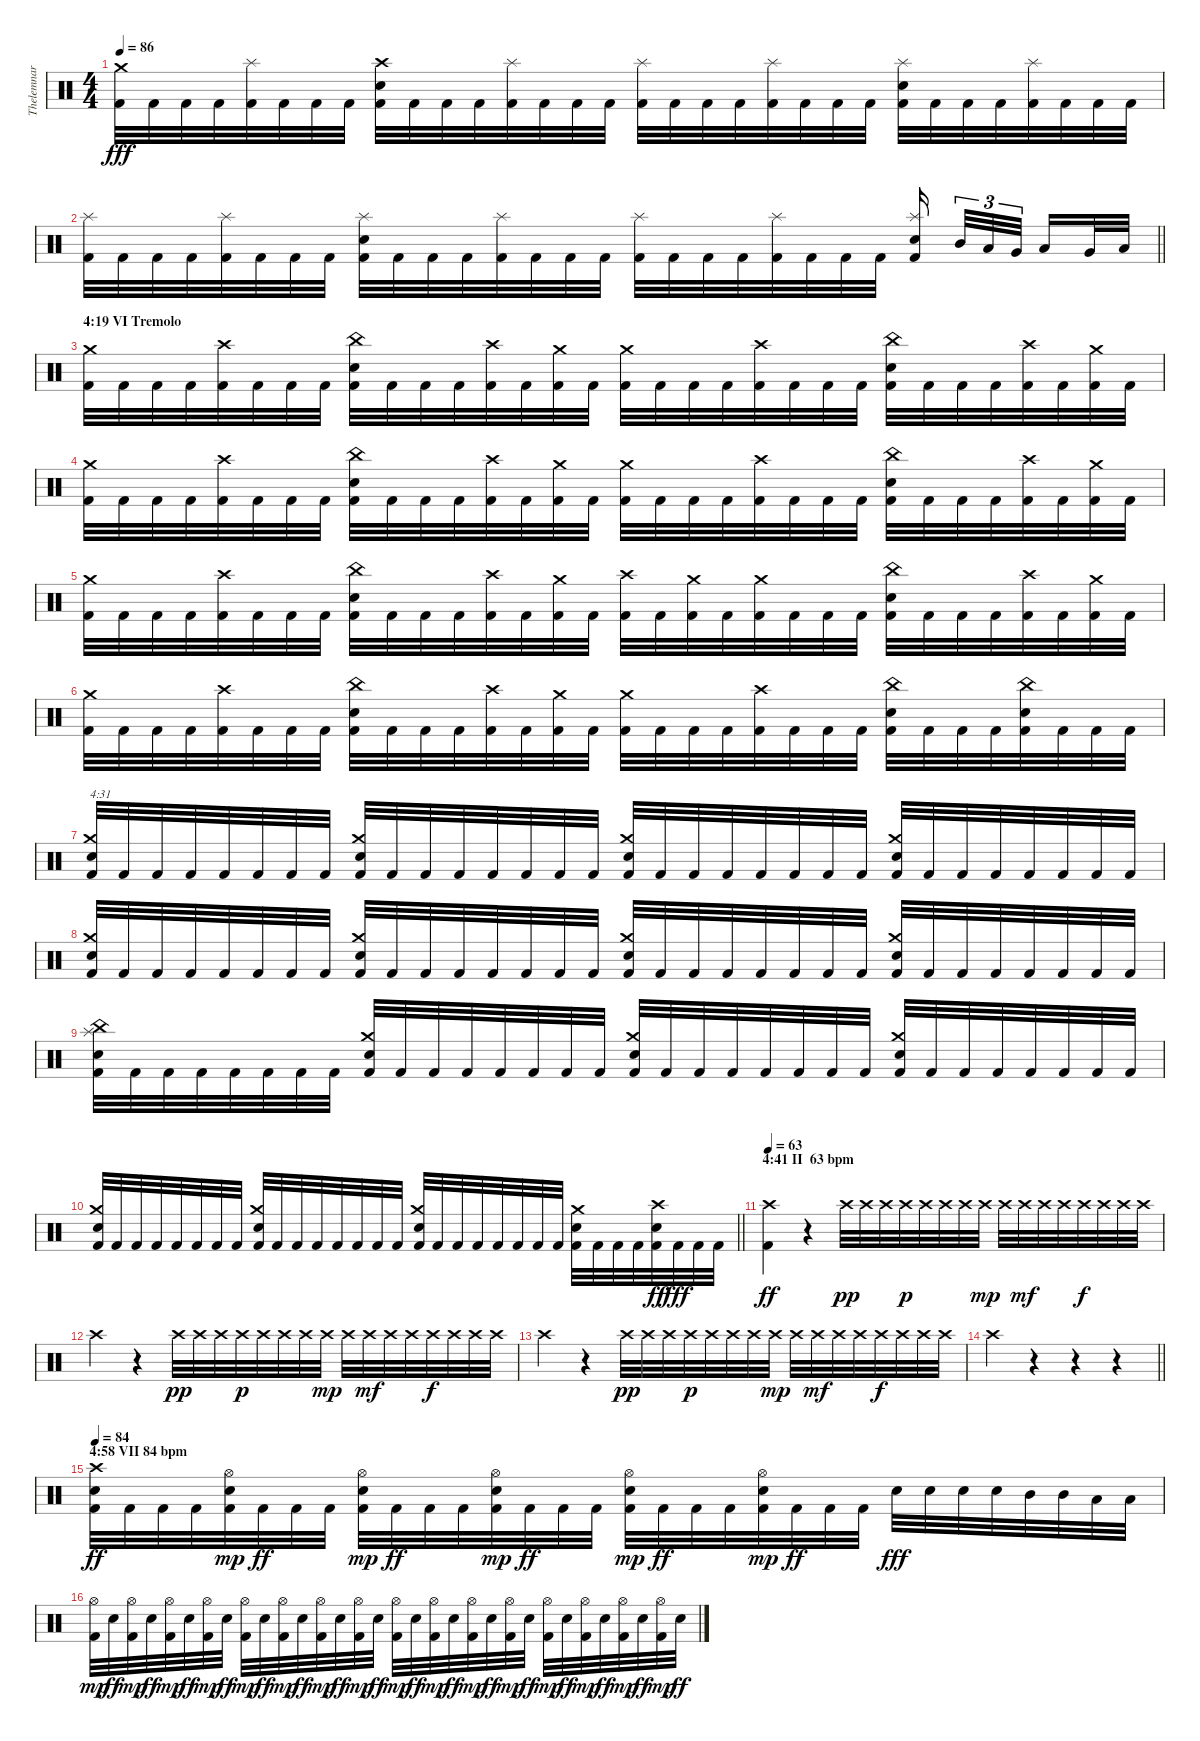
\track ("Thelemnar (Drums)" "Thelemnar ") {instrument percussion}
\staff {score}
\articulation defaults
\ts (4 4)
\tempo 86
\clef neutral
\ks c
("Kick (hit) 2" "Crash medium (hit)").32{dy fff} "Kick (hit) 2".32 "Kick (hit) 2".32 "Kick (hit) 2".32 ("Kick (hit) 2" "Splash (hit)").32 "Kick (hit) 2".32 "Kick (hit) 2".32 "Kick (hit) 2".32 ("Kick (hit) 2" "Electric Snare (hit)" "Crash high (hit)").32 "Kick (hit) 2".32 "Kick (hit) 2".32 "Kick (hit) 2".32 ("Kick (hit) 2" "Splash (hit)").32 "Kick (hit) 2".32 "Kick (hit) 2".32 "Kick (hit) 2".32 ("Kick (hit) 2" "Splash (hit)").32 "Kick (hit) 2".32 "Kick (hit) 2".32 "Kick (hit) 2".32 ("Kick (hit) 2" "Splash (hit)").32 "Kick (hit) 2".32 "Kick (hit) 2".32 "Kick (hit) 2".32 ("Kick (hit) 2" "Electric Snare (hit)" "Splash (hit)").32 "Kick (hit) 2".32 "Kick (hit) 2".32 "Kick (hit) 2".32 ("Kick (hit) 2" "Splash (hit)").32 "Kick (hit) 2".32 "Kick (hit) 2".32 "Kick (hit) 2".32 |
\barLineRight lightlight
("Kick (hit) 2" "Splash (hit)").32 "Kick (hit) 2".32 "Kick (hit) 2".32 "Kick (hit) 2".32 ("Kick (hit) 2" "Splash (hit)").32 "Kick (hit) 2".32 "Kick (hit) 2".32 "Kick (hit) 2".32 ("Kick (hit) 2" "Electric Snare (hit)" "Splash (hit)").32 "Kick (hit) 2".32 "Kick (hit) 2".32 "Kick (hit) 2".32 ("Kick (hit) 2" "Splash (hit)").32 "Kick (hit) 2".32 "Kick (hit) 2".32 "Kick (hit) 2".32 ("Kick (hit) 2" "Splash (hit)").32 "Kick (hit) 2".32 "Kick (hit) 2".32 "Kick (hit) 2".32 ("Kick (hit) 2" "Splash (hit)").32 "Kick (hit) 2".32 "Kick (hit) 2".32 "Kick (hit) 2".32 ("Kick (hit) 2" "Electric Snare (hit)" "Splash (hit)").16{beam splitsecondary} "Mid Tom (hit)".32{tu (3 2)} "Low Tom (hit)".32{tu (3 2)} "Very Low Tom (hit)".32{tu (3 2) beam splitsecondary} "Low Tom (hit)".16 "Very Low Tom (hit)".32 "Low Floor Tom (hit)".32 |
\section ("" "4:19 VI Tremolo")
("Kick (hit) 2" "Crash medium (hit)").32 "Kick (hit) 2".32 "Kick (hit) 2".32 "Kick (hit) 2".32 ("Kick (hit) 2" "Crash high (hit)").32 "Kick (hit) 2".32 "Kick (hit) 2".32 "Kick (hit) 2".32 ("Kick (hit) 2" "Electric Snare (hit)" "China (hit)").32 "Kick (hit) 2".32 "Kick (hit) 2".32 "Kick (hit) 2".32 ("Kick (hit) 2" "Crash high (hit)").32 "Kick (hit) 2".32 ("Kick (hit) 2" "Crash medium (hit)").32 "Kick (hit) 2".32 ("Kick (hit) 2" "Crash medium (hit)").32 "Kick (hit) 2".32 "Kick (hit) 2".32 "Kick (hit) 2".32 ("Kick (hit) 2" "Crash high (hit)").32 "Kick (hit) 2".32 "Kick (hit) 2".32 "Kick (hit) 2".32 ("Kick (hit) 2" "Electric Snare (hit)" "China (hit)").32 "Kick (hit) 2".32 "Kick (hit) 2".32 "Kick (hit) 2".32 ("Kick (hit) 2" "Crash high (hit)").32 "Kick (hit) 2".32 ("Kick (hit) 2" "Crash medium (hit)").32 "Kick (hit) 2".32 |
("Kick (hit) 2" "Crash medium (hit)").32 "Kick (hit) 2".32 "Kick (hit) 2".32 "Kick (hit) 2".32 ("Kick (hit) 2" "Crash high (hit)").32 "Kick (hit) 2".32 "Kick (hit) 2".32 "Kick (hit) 2".32 ("Kick (hit) 2" "Electric Snare (hit)" "China (hit)").32 "Kick (hit) 2".32 "Kick (hit) 2".32 "Kick (hit) 2".32 ("Kick (hit) 2" "Crash high (hit)").32 "Kick (hit) 2".32 ("Kick (hit) 2" "Crash medium (hit)").32 "Kick (hit) 2".32 ("Kick (hit) 2" "Crash medium (hit)").32 "Kick (hit) 2".32 "Kick (hit) 2".32 "Kick (hit) 2".32 ("Kick (hit) 2" "Crash high (hit)").32 "Kick (hit) 2".32 "Kick (hit) 2".32 "Kick (hit) 2".32 ("Kick (hit) 2" "Electric Snare (hit)" "China (hit)").32 "Kick (hit) 2".32 "Kick (hit) 2".32 "Kick (hit) 2".32 ("Kick (hit) 2" "Crash high (hit)").32 "Kick (hit) 2".32 ("Kick (hit) 2" "Crash medium (hit)").32 "Kick (hit) 2".32 |
("Kick (hit) 2" "Crash medium (hit)").32 "Kick (hit) 2".32 "Kick (hit) 2".32 "Kick (hit) 2".32 ("Kick (hit) 2" "Crash high (hit)").32 "Kick (hit) 2".32 "Kick (hit) 2".32 "Kick (hit) 2".32 ("Kick (hit) 2" "Electric Snare (hit)" "China (hit)").32 "Kick (hit) 2".32 "Kick (hit) 2".32 "Kick (hit) 2".32 ("Kick (hit) 2" "Crash high (hit)").32 "Kick (hit) 2".32 ("Kick (hit) 2" "Crash medium (hit)").32 "Kick (hit) 2".32 ("Kick (hit) 2" "Crash high (hit)").32 "Kick (hit) 2".32 ("Kick (hit) 2" "Crash medium (hit)").32 "Kick (hit) 2".32 ("Kick (hit) 2" "Crash medium (hit)").32 "Kick (hit) 2".32 "Kick (hit) 2".32 "Kick (hit) 2".32 ("Kick (hit) 2" "Electric Snare (hit)" "China (hit)").32 "Kick (hit) 2".32 "Kick (hit) 2".32 "Kick (hit) 2".32 ("Kick (hit) 2" "Crash high (hit)").32 "Kick (hit) 2".32 ("Kick (hit) 2" "Crash medium (hit)").32 "Kick (hit) 2".32 |
("Kick (hit) 2" "Crash medium (hit)").32 "Kick (hit) 2".32 "Kick (hit) 2".32 "Kick (hit) 2".32 ("Kick (hit) 2" "Crash high (hit)").32 "Kick (hit) 2".32 "Kick (hit) 2".32 "Kick (hit) 2".32 ("Kick (hit) 2" "Electric Snare (hit)" "China (hit)").32 "Kick (hit) 2".32 "Kick (hit) 2".32 "Kick (hit) 2".32 ("Kick (hit) 2" "Crash high (hit)").32 "Kick (hit) 2".32 ("Kick (hit) 2" "Crash medium (hit)").32 "Kick (hit) 2".32 ("Kick (hit) 2" "Crash medium (hit)").32 "Kick (hit) 2".32 "Kick (hit) 2".32 "Kick (hit) 2".32 ("Kick (hit) 2" "Crash high (hit)").32 "Kick (hit) 2".32 "Kick (hit) 2".32 "Kick (hit) 2".32 ("Kick (hit) 2" "Electric Snare (hit)" "China (hit)").32 "Kick (hit) 2".32 "Kick (hit) 2".32 "Kick (hit) 2".32 ("Kick (hit) 2" "Electric Snare (hit)" "China (hit)").32 "Kick (hit) 2".32 "Kick (hit) 2".32 "Kick (hit) 2".32 |
("Kick (hit) 2" "Electric Snare (hit)" "Crash medium (hit)").32{txt "4:31"} "Kick (hit) 2".32 "Kick (hit) 2".32 "Kick (hit) 2".32 "Kick (hit) 2".32 "Kick (hit) 2".32 "Kick (hit) 2".32 "Kick (hit) 2".32 ("Kick (hit) 2" "Electric Snare (hit)" "Crash medium (hit)").32 "Kick (hit) 2".32 "Kick (hit) 2".32 "Kick (hit) 2".32 "Kick (hit) 2".32 "Kick (hit) 2".32 "Kick (hit) 2".32 "Kick (hit) 2".32 ("Kick (hit) 2" "Electric Snare (hit)" "Crash medium (hit)").32 "Kick (hit) 2".32 "Kick (hit) 2".32 "Kick (hit) 2".32 "Kick (hit) 2".32 "Kick (hit) 2".32 "Kick (hit) 2".32 "Kick (hit) 2".32 ("Kick (hit) 2" "Electric Snare (hit)" "Crash medium (hit)").32 "Kick (hit) 2".32 "Kick (hit) 2".32 "Kick (hit) 2".32 "Kick (hit) 2".32 "Kick (hit) 2".32 "Kick (hit) 2".32 "Kick (hit) 2".32 |
("Kick (hit) 2" "Electric Snare (hit)" "Crash medium (hit)").32 "Kick (hit) 2".32 "Kick (hit) 2".32 "Kick (hit) 2".32 "Kick (hit) 2".32 "Kick (hit) 2".32 "Kick (hit) 2".32 "Kick (hit) 2".32 ("Kick (hit) 2" "Electric Snare (hit)" "Crash medium (hit)").32 "Kick (hit) 2".32 "Kick (hit) 2".32 "Kick (hit) 2".32 "Kick (hit) 2".32 "Kick (hit) 2".32 "Kick (hit) 2".32 "Kick (hit) 2".32 ("Kick (hit) 2" "Electric Snare (hit)" "Crash medium (hit)").32 "Kick (hit) 2".32 "Kick (hit) 2".32 "Kick (hit) 2".32 "Kick (hit) 2".32 "Kick (hit) 2".32 "Kick (hit) 2".32 "Kick (hit) 2".32 ("Kick (hit) 2" "Electric Snare (hit)" "Crash medium (hit)").32 "Kick (hit) 2".32 "Kick (hit) 2".32 "Kick (hit) 2".32 "Kick (hit) 2".32 "Kick (hit) 2".32 "Kick (hit) 2".32 "Kick (hit) 2".32 |
("Kick (hit) 2" "Electric Snare (hit)" "China (hit)" "Splash (hit)").32 "Kick (hit) 2".32 "Kick (hit) 2".32 "Kick (hit) 2".32 "Kick (hit) 2".32 "Kick (hit) 2".32 "Kick (hit) 2".32 "Kick (hit) 2".32 ("Kick (hit) 2" "Electric Snare (hit)" "Crash medium (hit)").32 "Kick (hit) 2".32 "Kick (hit) 2".32 "Kick (hit) 2".32 "Kick (hit) 2".32 "Kick (hit) 2".32 "Kick (hit) 2".32 "Kick (hit) 2".32 ("Kick (hit) 2" "Electric Snare (hit)" "Crash medium (hit)").32 "Kick (hit) 2".32 "Kick (hit) 2".32 "Kick (hit) 2".32 "Kick (hit) 2".32 "Kick (hit) 2".32 "Kick (hit) 2".32 "Kick (hit) 2".32 ("Kick (hit) 2" "Electric Snare (hit)" "Crash medium (hit)").32 "Kick (hit) 2".32 "Kick (hit) 2".32 "Kick (hit) 2".32 "Kick (hit) 2".32 "Kick (hit) 2".32 "Kick (hit) 2".32 "Kick (hit) 2".32 |
\barLineRight lightlight
("Kick (hit) 2" "Electric Snare (hit)" "Crash medium (hit)").32 "Kick (hit) 2".32 "Kick (hit) 2".32 "Kick (hit) 2".32 "Kick (hit) 2".32 "Kick (hit) 2".32 "Kick (hit) 2".32 "Kick (hit) 2".32 ("Kick (hit) 2" "Electric Snare (hit)" "Crash medium (hit)").32 "Kick (hit) 2".32 "Kick (hit) 2".32 "Kick (hit) 2".32 "Kick (hit) 2".32 "Kick (hit) 2".32 "Kick (hit) 2".32 "Kick (hit) 2".32 ("Kick (hit) 2" "Electric Snare (hit)" "Crash medium (hit)").32 "Kick (hit) 2".32 "Kick (hit) 2".32 "Kick (hit) 2".32 "Kick (hit) 2".32 "Kick (hit) 2".32 "Kick (hit) 2".32 "Kick (hit) 2".32 ("Kick (hit) 2" "Electric Snare (hit)" "Crash medium (hit)").32 "Kick (hit) 2".32 "Kick (hit) 2".32 "Kick (hit) 2".32 ("Kick (hit) 2" "Electric Snare (hit)" "Crash high (hit)").32{dy ff} "Kick (hit) 2".32{dy fff} "Kick (hit) 2".32 "Kick (hit) 2".32 |
\section ("" "4:41 II  63 bpm")
\tempo 63
("Kick (hit) 2" "Crash high (hit)").4{dy ff} r.4 "Crash high (hit)".32{dy pp} "Crash high (hit)".32 "Crash high (hit)".32 "Crash high (hit)".32{dy p} "Crash high (hit)".32 "Crash high (hit)".32 "Crash high (hit)".32 "Crash high (hit)".32{dy mp} "Crash high (hit)".32 "Crash high (hit)".32{dy mf} "Crash high (hit)".32 "Crash high (hit)".32 "Crash high (hit)".32{dy f} "Crash high (hit)".32 "Crash high (hit)".32 "Crash high (hit)".32 |
"Crash high (hit)".4 r.4 "Crash high (hit)".32{dy pp} "Crash high (hit)".32 "Crash high (hit)".32 "Crash high (hit)".32{dy p} "Crash high (hit)".32 "Crash high (hit)".32 "Crash high (hit)".32 "Crash high (hit)".32{dy mp} "Crash high (hit)".32 "Crash high (hit)".32{dy mf} "Crash high (hit)".32 "Crash high (hit)".32 "Crash high (hit)".32{dy f} "Crash high (hit)".32 "Crash high (hit)".32 "Crash high (hit)".32 |
"Crash high (hit)".4 r.4 "Crash high (hit)".32{dy pp} "Crash high (hit)".32 "Crash high (hit)".32 "Crash high (hit)".32{dy p} "Crash high (hit)".32 "Crash high (hit)".32 "Crash high (hit)".32 "Crash high (hit)".32{dy mp} "Crash high (hit)".32 "Crash high (hit)".32{dy mf} "Crash high (hit)".32 "Crash high (hit)".32 "Crash high (hit)".32{dy f} "Crash high (hit)".32 "Crash high (hit)".32 "Crash high (hit)".32 |
\barLineRight lightlight "Crash high (hit)".4
r.4 r.4 r.4 |
\section ("" "4:58 VII 84 bpm")
\tempo 84
("Kick (hit) 2" "Electric Snare (hit)" "Crash high (hit)").32{dy ff} "Kick (hit) 2".32 "Kick (hit) 2".32 "Kick (hit) 2".32 ("Kick (hit) 2" "Electric Snare (hit)" "Hi-Hat (open)").32{dy mp} "Kick (hit) 2".32{dy ff} "Kick (hit) 2".32 "Kick (hit) 2".32 ("Kick (hit) 2" "Electric Snare (hit)" "Hi-Hat (open)").32{dy mp} "Kick (hit) 2".32{dy ff} "Kick (hit) 2".32 "Kick (hit) 2".32 ("Kick (hit) 2" "Electric Snare (hit)" "Hi-Hat (open)").32{dy mp} "Kick (hit) 2".32{dy ff} "Kick (hit) 2".32 "Kick (hit) 2".32 ("Kick (hit) 2" "Electric Snare (hit)" "Hi-Hat (open)").32{dy mp} "Kick (hit) 2".32{dy ff} "Kick (hit) 2".32 "Kick (hit) 2".32 ("Kick (hit) 2" "Electric Snare (hit)" "Hi-Hat (open)").32{dy mp} "Kick (hit) 2".32{dy ff} "Kick (hit) 2".32 "Kick (hit) 2".32 "Electric Snare (hit)".32{dy fff} "Electric Snare (hit)".32 "Electric Snare (hit)".32 "Electric Snare (hit)".32 "Mid Tom (hit)".32 "Mid Tom (hit)".32 "Low Tom (hit)".32 "Low Tom (hit)".32 |
("Kick (hit) 2" "Hi-Hat (open)").32{dy mp} "Electric Snare (hit)".32{dy ff} ("Kick (hit) 2" "Hi-Hat (open)").32{dy mp} "Electric Snare (hit)".32{dy ff} ("Kick (hit) 2" "Hi-Hat (open)").32{dy mp} "Electric Snare (hit)".32{dy ff} ("Kick (hit) 2" "Hi-Hat (open)").32{dy mp} "Electric Snare (hit)".32{dy ff} ("Kick (hit) 2" "Hi-Hat (open)").32{dy mp} "Electric Snare (hit)".32{dy ff} ("Kick (hit) 2" "Hi-Hat (open)").32{dy mp} "Electric Snare (hit)".32{dy ff} ("Kick (hit) 2" "Hi-Hat (open)").32{dy mp} "Electric Snare (hit)".32{dy ff} ("Kick (hit) 2" "Hi-Hat (open)").32{dy mp} "Electric Snare (hit)".32{dy ff} ("Kick (hit) 2" "Hi-Hat (open)").32{dy mp} "Electric Snare (hit)".32{dy ff} ("Kick (hit) 2" "Hi-Hat (open)").32{dy mp} "Electric Snare (hit)".32{dy ff} ("Kick (hit) 2" "Hi-Hat (open)").32{dy mp} "Electric Snare (hit)".32{dy ff} ("Kick (hit) 2" "Hi-Hat (open)").32{dy mp} "Electric Snare (hit)".32{dy ff} ("Kick (hit) 2" "Hi-Hat (open)").32{dy mp} "Electric Snare (hit)".32{dy ff} ("Kick (hit) 2" "Hi-Hat (open)").32{dy mp} "Electric Snare (hit)".32{dy ff} ("Kick (hit) 2" "Hi-Hat (open)").32{dy mp} "Electric Snare (hit)".32{dy ff} ("Kick (hit) 2" "Hi-Hat (open)").32{dy mp} "Electric Snare (hit)".32{dy ff}
